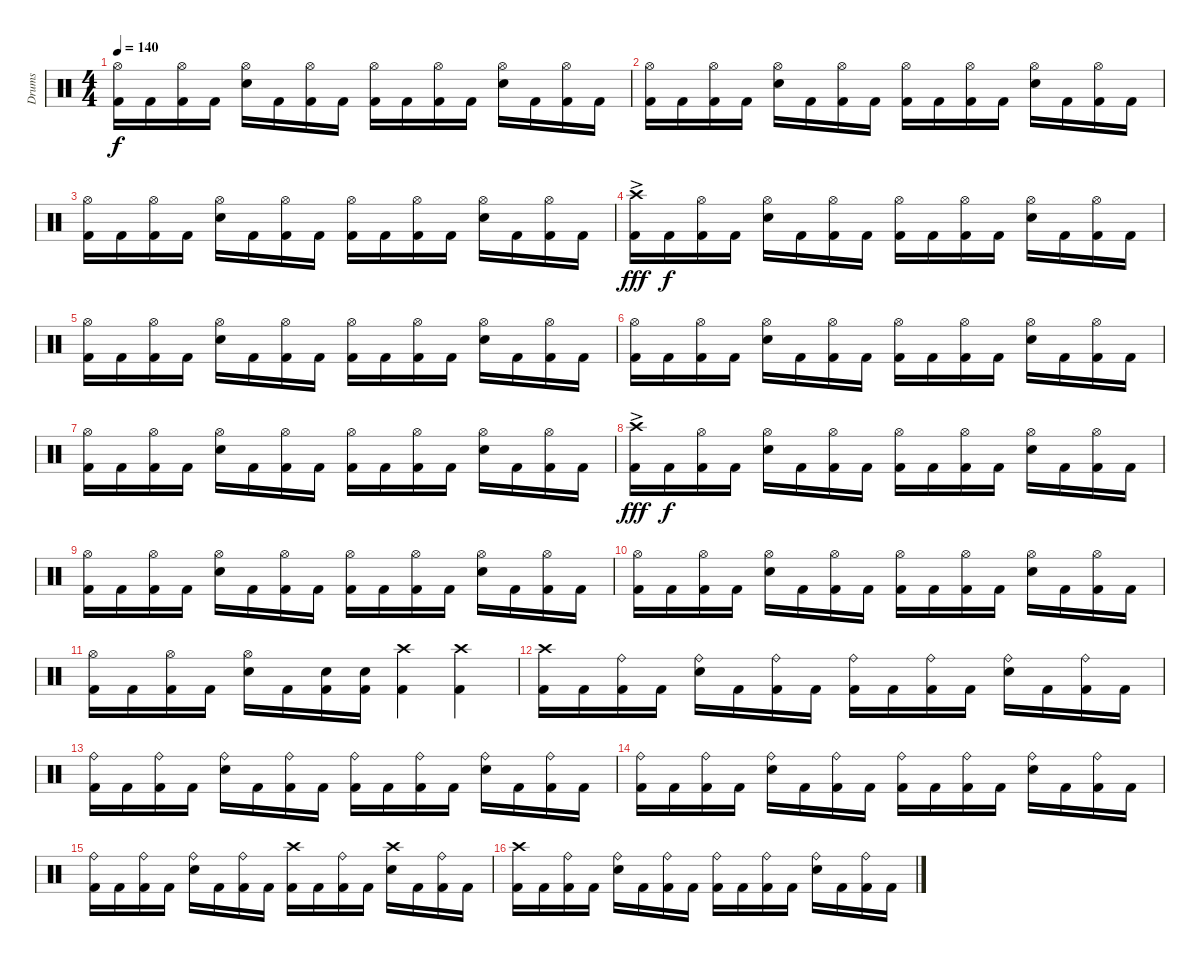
\track ("Drums" "Drums") {instrument percussion}
\staff {score}
\articulation defaults
\ts (4 4)
\tempo 140
\clef neutral
\ks c
("Hi-Hat (open)" "Kick (hit) 2").16{dy f} "Kick (hit) 2".16 ("Hi-Hat (open)" "Kick (hit) 2").16 "Kick (hit) 2".16 ("Hi-Hat (open)" "Snare (hit) 2").16 "Kick (hit) 2".16 ("Hi-Hat (open)" "Kick (hit) 2").16 "Kick (hit) 2".16 ("Hi-Hat (open)" "Kick (hit) 2").16 "Kick (hit) 2".16 ("Hi-Hat (open)" "Kick (hit) 2").16 "Kick (hit) 2".16 ("Hi-Hat (open)" "Snare (hit) 2").16 "Kick (hit) 2".16 ("Hi-Hat (open)" "Kick (hit) 2").16 "Kick (hit) 2".16 |
("Hi-Hat (open)" "Kick (hit) 2").16 "Kick (hit) 2".16 ("Hi-Hat (open)" "Kick (hit) 2").16 "Kick (hit) 2".16 ("Hi-Hat (open)" "Snare (hit) 2").16 "Kick (hit) 2".16 ("Hi-Hat (open)" "Kick (hit) 2").16 "Kick (hit) 2".16 ("Hi-Hat (open)" "Kick (hit) 2").16 "Kick (hit) 2".16 ("Hi-Hat (open)" "Kick (hit) 2").16 "Kick (hit) 2".16 ("Hi-Hat (open)" "Snare (hit) 2").16 "Kick (hit) 2".16 ("Hi-Hat (open)" "Kick (hit) 2").16 "Kick (hit) 2".16 |
("Hi-Hat (open)" "Kick (hit) 2").16 "Kick (hit) 2".16 ("Hi-Hat (open)" "Kick (hit) 2").16 "Kick (hit) 2".16 ("Hi-Hat (open)" "Snare (hit) 2").16 "Kick (hit) 2".16 ("Hi-Hat (open)" "Kick (hit) 2").16 "Kick (hit) 2".16 ("Hi-Hat (open)" "Kick (hit) 2").16 "Kick (hit) 2".16 ("Hi-Hat (open)" "Kick (hit) 2").16 "Kick (hit) 2".16 ("Hi-Hat (open)" "Snare (hit) 2").16 "Kick (hit) 2".16 ("Hi-Hat (open)" "Kick (hit) 2").16 "Kick (hit) 2".16 |
("Crash high (hit)"{ac} "Kick (hit) 2").16{dy fff} "Kick (hit) 2".16{dy f} ("Hi-Hat (open)" "Kick (hit) 2").16 "Kick (hit) 2".16 ("Hi-Hat (open)" "Snare (hit) 2").16 "Kick (hit) 2".16 ("Hi-Hat (open)" "Kick (hit) 2").16 "Kick (hit) 2".16 ("Hi-Hat (open)" "Kick (hit) 2").16 "Kick (hit) 2".16 ("Hi-Hat (open)" "Kick (hit) 2").16 "Kick (hit) 2".16 ("Hi-Hat (open)" "Snare (hit) 2").16 "Kick (hit) 2".16 ("Hi-Hat (open)" "Kick (hit) 2").16 "Kick (hit) 2".16 |
("Hi-Hat (open)" "Kick (hit) 2").16 "Kick (hit) 2".16 ("Hi-Hat (open)" "Kick (hit) 2").16 "Kick (hit) 2".16 ("Hi-Hat (open)" "Snare (hit) 2").16 "Kick (hit) 2".16 ("Hi-Hat (open)" "Kick (hit) 2").16 "Kick (hit) 2".16 ("Hi-Hat (open)" "Kick (hit) 2").16 "Kick (hit) 2".16 ("Hi-Hat (open)" "Kick (hit) 2").16 "Kick (hit) 2".16 ("Hi-Hat (open)" "Snare (hit) 2").16 "Kick (hit) 2".16 ("Hi-Hat (open)" "Kick (hit) 2").16 "Kick (hit) 2".16 |
("Hi-Hat (open)" "Kick (hit) 2").16 "Kick (hit) 2".16 ("Hi-Hat (open)" "Kick (hit) 2").16 "Kick (hit) 2".16 ("Hi-Hat (open)" "Snare (hit) 2").16 "Kick (hit) 2".16 ("Hi-Hat (open)" "Kick (hit) 2").16 "Kick (hit) 2".16 ("Hi-Hat (open)" "Kick (hit) 2").16 "Kick (hit) 2".16 ("Hi-Hat (open)" "Kick (hit) 2").16 "Kick (hit) 2".16 ("Hi-Hat (open)" "Snare (hit) 2").16 "Kick (hit) 2".16 ("Hi-Hat (open)" "Kick (hit) 2").16 "Kick (hit) 2".16 |
("Hi-Hat (open)" "Kick (hit) 2").16 "Kick (hit) 2".16 ("Hi-Hat (open)" "Kick (hit) 2").16 "Kick (hit) 2".16 ("Hi-Hat (open)" "Snare (hit) 2").16 "Kick (hit) 2".16 ("Hi-Hat (open)" "Kick (hit) 2").16 "Kick (hit) 2".16 ("Hi-Hat (open)" "Kick (hit) 2").16 "Kick (hit) 2".16 ("Hi-Hat (open)" "Kick (hit) 2").16 "Kick (hit) 2".16 ("Hi-Hat (open)" "Snare (hit) 2").16 "Kick (hit) 2".16 ("Hi-Hat (open)" "Kick (hit) 2").16 "Kick (hit) 2".16 |
("Crash high (hit)"{ac} "Kick (hit) 2").16{dy fff} "Kick (hit) 2".16{dy f} ("Hi-Hat (open)" "Kick (hit) 2").16 "Kick (hit) 2".16 ("Hi-Hat (open)" "Snare (hit) 2").16 "Kick (hit) 2".16 ("Hi-Hat (open)" "Kick (hit) 2").16 "Kick (hit) 2".16 ("Hi-Hat (open)" "Kick (hit) 2").16 "Kick (hit) 2".16 ("Hi-Hat (open)" "Kick (hit) 2").16 "Kick (hit) 2".16 ("Hi-Hat (open)" "Snare (hit) 2").16 "Kick (hit) 2".16 ("Hi-Hat (open)" "Kick (hit) 2").16 "Kick (hit) 2".16 |
("Hi-Hat (open)" "Kick (hit) 2").16 "Kick (hit) 2".16 ("Hi-Hat (open)" "Kick (hit) 2").16 "Kick (hit) 2".16 ("Hi-Hat (open)" "Snare (hit) 2").16 "Kick (hit) 2".16 ("Hi-Hat (open)" "Kick (hit) 2").16 "Kick (hit) 2".16 ("Hi-Hat (open)" "Kick (hit) 2").16 "Kick (hit) 2".16 ("Hi-Hat (open)" "Kick (hit) 2").16 "Kick (hit) 2".16 ("Hi-Hat (open)" "Snare (hit) 2").16 "Kick (hit) 2".16 ("Hi-Hat (open)" "Kick (hit) 2").16 "Kick (hit) 2".16 |
("Hi-Hat (open)" "Kick (hit) 2").16 "Kick (hit) 2".16 ("Hi-Hat (open)" "Kick (hit) 2").16 "Kick (hit) 2".16 ("Hi-Hat (open)" "Snare (hit) 2").16 "Kick (hit) 2".16 ("Hi-Hat (open)" "Kick (hit) 2").16 "Kick (hit) 2".16 ("Hi-Hat (open)" "Kick (hit) 2").16 "Kick (hit) 2".16 ("Hi-Hat (open)" "Kick (hit) 2").16 "Kick (hit) 2".16 ("Hi-Hat (open)" "Snare (hit) 2").16 "Kick (hit) 2".16 ("Hi-Hat (open)" "Kick (hit) 2").16 "Kick (hit) 2".16 |
("Hi-Hat (open)" "Kick (hit) 2").16 "Kick (hit) 2".16 ("Hi-Hat (open)" "Kick (hit) 2").16 "Kick (hit) 2".16 ("Hi-Hat (open)" "Snare (hit) 2").16 "Kick (hit) 2".16 ("Snare (hit) 2" "Kick (hit) 2").16 ("Snare (hit) 2" "Kick (hit) 2").16 ("Crash high (hit)" "Kick (hit) 2").4 ("Crash high (hit)" "Kick (hit) 2").4 |
("Crash high (hit)" "Kick (hit) 2").16 "Kick (hit) 2".16 ("Ride (bell)" "Kick (hit) 2").16 "Kick (hit) 2".16 ("Ride (bell)" "Snare (hit) 2").16 "Kick (hit) 2".16 ("Ride (bell)" "Kick (hit) 2").16 "Kick (hit) 2".16 ("Ride (bell)" "Kick (hit) 2").16 "Kick (hit) 2".16 ("Ride (bell)" "Kick (hit) 2").16 "Kick (hit) 2".16 ("Ride (bell)" "Snare (hit) 2").16 "Kick (hit) 2".16 ("Ride (bell)" "Kick (hit) 2").16 "Kick (hit) 2".16 |
("Ride (bell)" "Kick (hit) 2").16 "Kick (hit) 2".16 ("Ride (bell)" "Kick (hit) 2").16 "Kick (hit) 2".16 ("Ride (bell)" "Snare (hit) 2").16 "Kick (hit) 2".16 ("Ride (bell)" "Kick (hit) 2").16 "Kick (hit) 2".16 ("Ride (bell)" "Kick (hit) 2").16 "Kick (hit) 2".16 ("Ride (bell)" "Kick (hit) 2").16 "Kick (hit) 2".16 ("Ride (bell)" "Snare (hit) 2").16 "Kick (hit) 2".16 ("Ride (bell)" "Kick (hit) 2").16 "Kick (hit) 2".16 |
("Ride (bell)" "Kick (hit) 2").16 "Kick (hit) 2".16 ("Ride (bell)" "Kick (hit) 2").16 "Kick (hit) 2".16 ("Ride (bell)" "Snare (hit) 2").16 "Kick (hit) 2".16 ("Ride (bell)" "Kick (hit) 2").16 "Kick (hit) 2".16 ("Ride (bell)" "Kick (hit) 2").16 "Kick (hit) 2".16 ("Ride (bell)" "Kick (hit) 2").16 "Kick (hit) 2".16 ("Ride (bell)" "Snare (hit) 2").16 "Kick (hit) 2".16 ("Ride (bell)" "Kick (hit) 2").16 "Kick (hit) 2".16 |
("Ride (bell)" "Kick (hit) 2").16 "Kick (hit) 2".16 ("Ride (bell)" "Kick (hit) 2").16 "Kick (hit) 2".16 ("Ride (bell)" "Snare (hit) 2").16 "Kick (hit) 2".16 ("Ride (bell)" "Kick (hit) 2").16 "Kick (hit) 2".16 ("Crash high (hit)" "Kick (hit) 2").16 "Kick (hit) 2".16 ("Ride (bell)" "Kick (hit) 2").16 "Kick (hit) 2".16 ("Crash high (hit)" "Snare (hit) 2").16 "Kick (hit) 2".16 ("Ride (bell)" "Kick (hit) 2").16 "Kick (hit) 2".16 |
("Crash high (hit)" "Kick (hit) 2").16 "Kick (hit) 2".16 ("Ride (bell)" "Kick (hit) 2").16 "Kick (hit) 2".16 ("Ride (bell)" "Snare (hit) 2").16 "Kick (hit) 2".16 ("Ride (bell)" "Kick (hit) 2").16 "Kick (hit) 2".16 ("Ride (bell)" "Kick (hit) 2").16 "Kick (hit) 2".16 ("Ride (bell)" "Kick (hit) 2").16 "Kick (hit) 2".16 ("Ride (bell)" "Snare (hit) 2").16 "Kick (hit) 2".16 ("Ride (bell)" "Kick (hit) 2").16 "Kick (hit) 2".16
